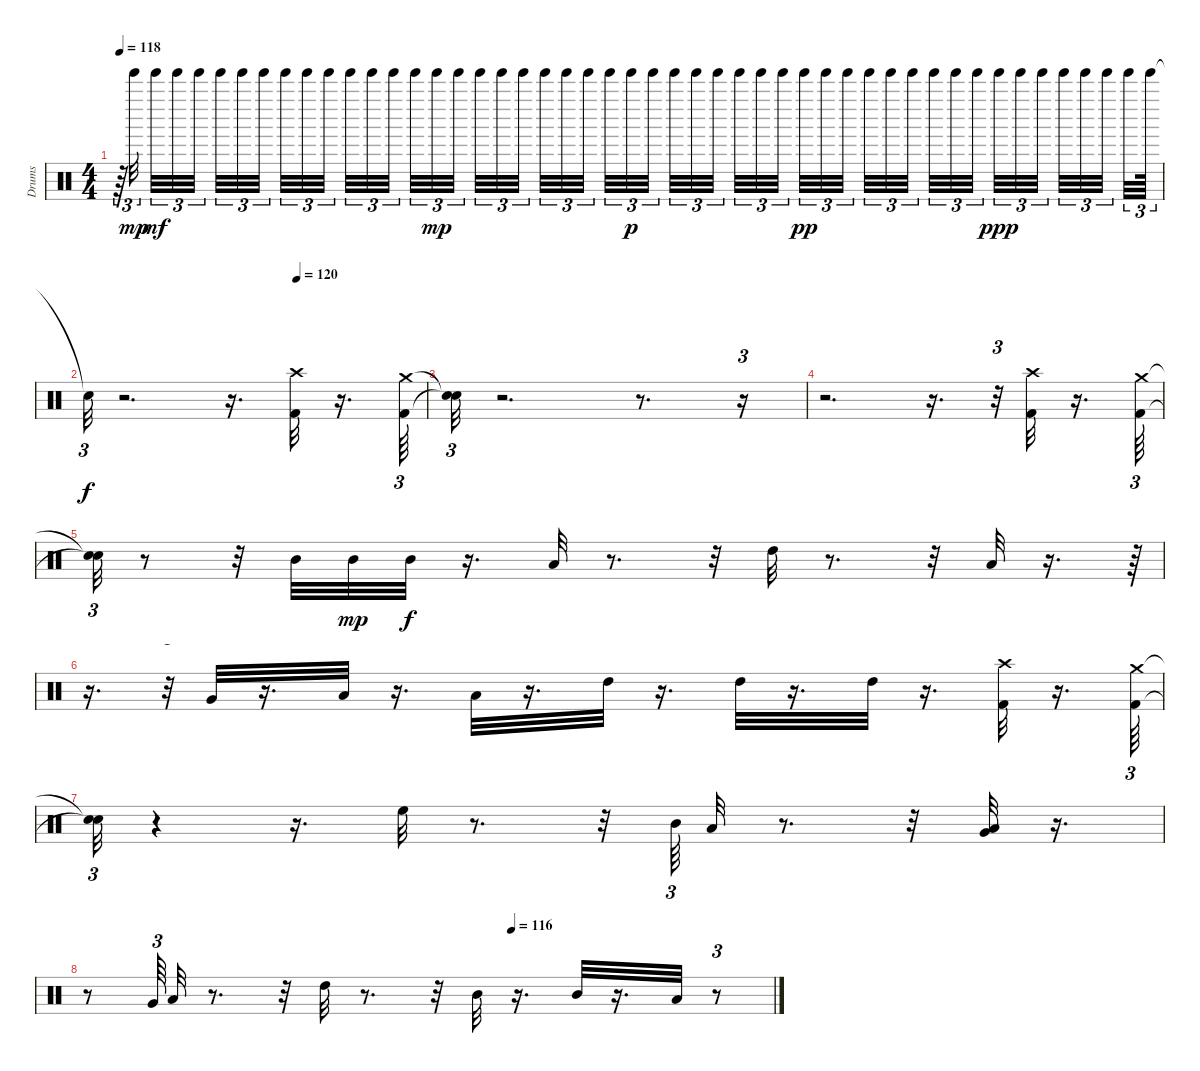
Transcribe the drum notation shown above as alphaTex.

\track ("Drums" "Drums") {instrument percussion}
\staff {score}
\articulation defaults
\ts (4 4)
\tempo 118
\clef neutral
\ks c
r.64{tu (3 2) dy mp} "Tinkle Bell (hit)".32{tu (3 2)} "Tinkle Bell (hit)".32{tu (3 2) dy mf} "Tinkle Bell (hit)".32{tu (3 2)} "Tinkle Bell (hit)".32{tu (3 2)} "Tinkle Bell (hit)".32{tu (3 2)} "Tinkle Bell (hit)".32{tu (3 2)} "Tinkle Bell (hit)".32{tu (3 2)} "Tinkle Bell (hit)".32{tu (3 2)} "Tinkle Bell (hit)".32{tu (3 2)} "Tinkle Bell (hit)".32{tu (3 2)} "Tinkle Bell (hit)".32{tu (3 2)} "Tinkle Bell (hit)".32{tu (3 2)} "Tinkle Bell (hit)".32{tu (3 2)} "Tinkle Bell (hit)".32{tu (3 2)} "Tinkle Bell (hit)".32{tu (3 2) dy mp} "Tinkle Bell (hit)".32{tu (3 2)} "Tinkle Bell (hit)".32{tu (3 2)} "Tinkle Bell (hit)".32{tu (3 2)} "Tinkle Bell (hit)".32{tu (3 2)} "Tinkle Bell (hit)".32{tu (3 2)} "Tinkle Bell (hit)".32{tu (3 2)} "Tinkle Bell (hit)".32{tu (3 2)} "Tinkle Bell (hit)".32{tu (3 2)} "Tinkle Bell (hit)".32{tu (3 2) dy p} "Tinkle Bell (hit)".32{tu (3 2)} "Tinkle Bell (hit)".32{tu (3 2)} "Tinkle Bell (hit)".32{tu (3 2)} "Tinkle Bell (hit)".32{tu (3 2)} "Tinkle Bell (hit)".32{tu (3 2)} "Tinkle Bell (hit)".32{tu (3 2)} "Tinkle Bell (hit)".32{tu (3 2)} "Tinkle Bell (hit)".32{tu (3 2) dy pp} "Tinkle Bell (hit)".32{tu (3 2)} "Tinkle Bell (hit)".32{tu (3 2)} "Tinkle Bell (hit)".32{tu (3 2)} "Tinkle Bell (hit)".32{tu (3 2)} "Tinkle Bell (hit)".32{tu (3 2)} "Tinkle Bell (hit)".32{tu (3 2)} "Tinkle Bell (hit)".32{tu (3 2)} "Tinkle Bell (hit)".32{tu (3 2)} "Tinkle Bell (hit)".32{tu (3 2) dy ppp} "Tinkle Bell (hit)".32{tu (3 2)} "Tinkle Bell (hit)".32{tu (3 2)} "Tinkle Bell (hit)".32{tu (3 2)} "Tinkle Bell (hit)".32{tu (3 2)} "Tinkle Bell (hit)".32{tu (3 2)} "Tinkle Bell (hit)".32{tu (3 2)} "Tinkle Bell (hit)".64{tu (3 2)} |
\tempo (120 0.61875)
"Snare (hit)"{t}.32{tu (3 2) dy f} r.2{d} r.16{d} ("Kick (hit) 2" "Crash high (hit)").32 r.16{d} ("Crash medium (hit)" "Kick (hit) 2").64{tu (3 2)} |
("Snare (hit)"{t} "Snare (hit)"{t}).32{tu (3 2)} r.2{d} r.8{d} r.16{tu (3 2)} |
r.2{d} r.16{d} r.32{tu (3 2)} ("Kick (hit) 2" "Crash high (hit)").32 r.16{d} ("Kick (hit) 2" "Crash medium (hit)").64{tu (3 2)} |
("Snare (hit)"{t} "Snare (hit)"{t}).32{tu (3 2)} r.8 r.32 "Mid Tom (hit)".32 "Mid Tom (hit)".32{dy mp} "Mid Tom (hit)".32{dy f} r.16{d} "Low Tom (hit)".32 r.8{d} r.32 "High Tom (hit)".32 r.8{d} r.32 "Low Tom (hit)".32 r.16{d} r.64{tu (3 2)} |
r.16{d} r.32{tu (3 2)} "Very Low Tom (hit)".32 r.16{d} "Low Floor Tom (hit)".32 r.16{d} "Low Floor Tom (hit)".32 r.16{d} "High Tom (hit)".32 r.16{d} "High Tom (hit)".32 r.16{d} "High Tom (hit)".32 r.16{d} ("Kick (hit) 2" "Crash high (hit)").32 r.16{d} ("Crash medium (hit)" "Kick (hit) 2").64{tu (3 2)} |
("Snare (hit)"{t} "Snare (hit)"{t}).32{tu (3 2)} r.4 r.16{d} "High Floor Tom (hit)".32 r.8{d} r.32 "Mid Tom (hit)".64{tu (3 2)} "Low Tom (hit)".32 r.8{d} r.32 ("Low Tom (hit)" "Very Low Tom (hit)").32 r.16{d} |
\tempo (116 0.61875)
r.8 "Very Low Tom (hit)".64{tu (3 2)} "Low Floor Tom (hit)".32 r.8{d} r.32 "High Tom (hit)".32 r.8{d} r.32 "Mid Tom (hit)".32 r.16{d} "Mid Tom (hit)".32 r.16{d} "Low Tom (hit)".32 r.8{tu (3 2)}
